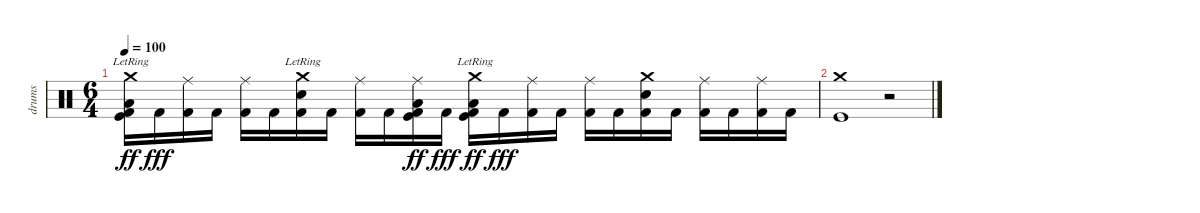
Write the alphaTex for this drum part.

\track ("drums" "drums") {instrument percussion}
\staff {score}
\articulation defaults
\ts (6 4)
\tempo 100
\clef neutral
\ks c
("Crash medium (hit)"{lr} "Kick (hit)" "Low Floor Tom (hit)" "Kick (hit) 2").16{dy ff} "Kick (hit) 2".16{dy fff} ("Ride (middle)" "Kick (hit) 2").16 "Kick (hit) 2".16 ("Ride (middle)" "Kick (hit) 2").16 "Kick (hit) 2".16 ("Crash medium (hit)"{lr} "Electric Snare (hit)" "Kick (hit) 2").16 "Kick (hit) 2".16 ("Ride (middle)" "Kick (hit) 2").16 "Kick (hit) 2".16 ("Ride (middle)" "Kick (hit)" "Low Floor Tom (hit)" "Kick (hit) 2").16{dy ff} "Kick (hit) 2".16{dy fff} ("Crash medium (hit)"{lr} "Kick (hit)" "Low Floor Tom (hit)" "Kick (hit) 2").16{dy ff} "Kick (hit) 2".16{dy fff} ("Ride (middle)" "Kick (hit) 2").16 "Kick (hit) 2".16 ("Ride (middle)" "Kick (hit) 2").16 "Kick (hit) 2".16 ("Crash medium (hit)" "Electric Snare (hit)" "Kick (hit) 2").16 "Kick (hit) 2".16 ("Ride (middle)" "Kick (hit) 2").16 "Kick (hit) 2".16 ("Ride (middle)" "Kick (hit) 2").16 "Kick (hit) 2".16 |
("Crash medium (hit)" "Kick (hit)").1 r.2
